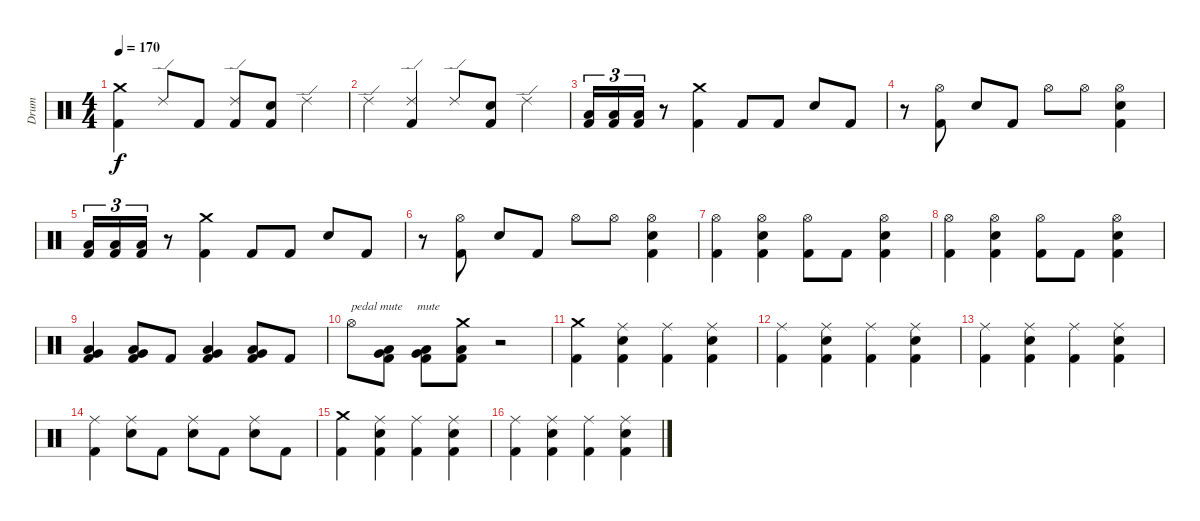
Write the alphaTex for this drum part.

\track ("Drum" "Drum") {instrument percussion}
\staff {score}
\articulation defaults
\ts (4 4)
\tempo 170
\clef neutral
\ks c
("Crash medium (hit)" "Kick (hit) 2").4{dy f} "Ride (edge) 2".8 "Kick (hit) 2".8 ("Ride (edge) 2" "Kick (hit) 2").8 ("Electric Snare (hit)" "Kick (hit) 2").8 "Ride (edge) 2".4 |
"Ride (edge) 2".4 ("Ride (edge) 2" "Kick (hit) 2").4 "Ride (edge) 2".8 ("Electric Snare (hit)" "Kick (hit) 2").8 "Ride (edge) 2".4 |
("Low Floor Tom (hit)" "Kick (hit) 2").16{tu (3 2)} ("Low Floor Tom (hit)" "Kick (hit) 2").16{tu (3 2)} ("Low Floor Tom (hit)" "Kick (hit) 2").16{tu (3 2)} r.8 ("Crash medium (hit)" "Kick (hit) 2").4 "Kick (hit) 2".8 "Kick (hit) 2".8 "Electric Snare (hit)".8 "Kick (hit) 2".8 |
r.8 ("Hi-Hat (open)" "Kick (hit) 2").8 "Electric Snare (hit)".8 "Kick (hit) 2".8 "Hi-Hat (open)".8 "Hi-Hat (open)".8 ("Hi-Hat (open)" "Electric Snare (hit)" "Kick (hit) 2").4 |
("Low Floor Tom (hit)" "Kick (hit) 2").16{tu (3 2)} ("Low Floor Tom (hit)" "Kick (hit) 2").16{tu (3 2)} ("Low Floor Tom (hit)" "Kick (hit) 2").16{tu (3 2)} r.8 ("Crash medium (hit)" "Kick (hit) 2").4 "Kick (hit) 2".8 "Kick (hit) 2".8 "Electric Snare (hit)".8 "Kick (hit) 2".8 |
r.8 ("Hi-Hat (open)" "Kick (hit) 2").8 "Electric Snare (hit)".8 "Kick (hit) 2".8 "Hi-Hat (open)".8 "Hi-Hat (open)".8 ("Hi-Hat (open)" "Electric Snare (hit)" "Kick (hit) 2").4 |
("Hi-Hat (open)" "Kick (hit) 2").4 ("Hi-Hat (open)" "Electric Snare (hit)" "Kick (hit) 2").4 ("Hi-Hat (open)" "Kick (hit) 2").8 "Kick (hit) 2".8 ("Hi-Hat (open)" "Electric Snare (hit)" "Kick (hit) 2").4 |
("Hi-Hat (open)" "Kick (hit) 2").4 ("Hi-Hat (open)" "Electric Snare (hit)" "Kick (hit) 2").4 ("Hi-Hat (open)" "Kick (hit) 2").8 "Kick (hit) 2".8 ("Hi-Hat (open)" "Electric Snare (hit)" "Kick (hit) 2").4 |
("Low Tom (hit)" "Very Low Tom (hit)" "Kick (hit) 2").4 ("Low Tom (hit)" "Very Low Tom (hit)" "Kick (hit) 2").8 "Kick (hit) 2".8 ("Low Tom (hit)" "Very Low Tom (hit)" "Kick (hit) 2").4 ("Low Tom (hit)" "Very Low Tom (hit)" "Kick (hit) 2").8 "Kick (hit) 2".8 |
"Hi-Hat (open)".8{txt "pedal mute     mute"} ("Very Low Tom (hit)" "Low Floor Tom (hit)" "Kick (hit) 2").8 ("Very Low Tom (hit)" "Low Floor Tom (hit)" "Kick (hit) 2").8 ("Crash medium (hit)" "Low Floor Tom (hit)" "Kick (hit) 2").8 r.2 |
("Crash medium (hit)" "Kick (hit) 2").4 ("Ride (middle)" "Electric Snare (hit)" "Kick (hit) 2").4 ("Ride (middle)" "Kick (hit) 2").4 ("Ride (middle)" "Electric Snare (hit)" "Kick (hit) 2").4 |
("Ride (middle)" "Kick (hit) 2").4 ("Ride (middle)" "Electric Snare (hit)" "Kick (hit) 2").4 ("Ride (middle)" "Kick (hit) 2").4 ("Ride (middle)" "Electric Snare (hit)" "Kick (hit) 2").4 |
("Ride (middle)" "Kick (hit) 2").4 ("Ride (middle)" "Electric Snare (hit)" "Kick (hit) 2").4 ("Ride (middle)" "Kick (hit) 2").4 ("Ride (middle)" "Electric Snare (hit)" "Kick (hit) 2").4 |
("Ride (middle)" "Kick (hit) 2").4 ("Ride (middle)" "Electric Snare (hit)").8 "Kick (hit) 2".8 ("Ride (middle)" "Electric Snare (hit)").8 "Kick (hit) 2".8 ("Ride (middle)" "Electric Snare (hit)").8 "Kick (hit) 2".8 |
("Crash medium (hit)" "Kick (hit) 2").4 ("Ride (middle)" "Electric Snare (hit)" "Kick (hit) 2").4 ("Ride (middle)" "Kick (hit) 2").4 ("Ride (middle)" "Electric Snare (hit)" "Kick (hit) 2").4 |
("Ride (middle)" "Kick (hit) 2").4 ("Ride (middle)" "Electric Snare (hit)" "Kick (hit) 2").4 ("Ride (middle)" "Kick (hit) 2").4 ("Ride (middle)" "Electric Snare (hit)" "Kick (hit) 2").4
